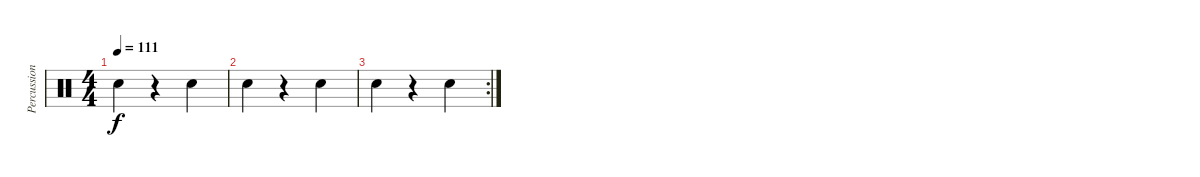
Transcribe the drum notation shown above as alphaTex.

\track ("Percussion" "Percussion") {instrument percussion}
\staff {score}
\articulation defaults
\ts (4 4)
\tempo 111
\clef neutral
\ks c "Hand Clap (hit)".4{dy f}
r.4 "Hand Clap (hit)".4 |
"Hand Clap (hit)".4 r.4 "Hand Clap (hit)".4 |
\rc 2 "Hand Clap (hit)".4
r.4 "Hand Clap (hit)".4
